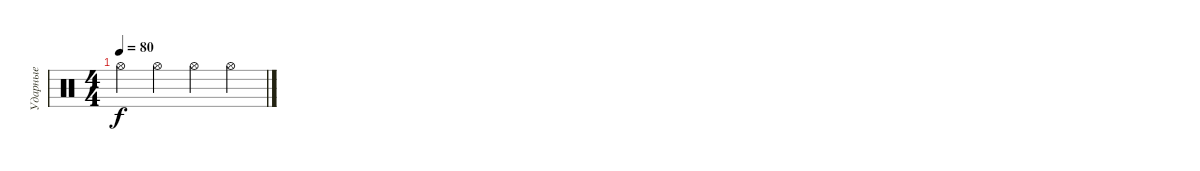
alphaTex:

\track ("Ударные" "Ударные") {instrument percussion}
\staff {score}
\articulation defaults
\ts (4 4)
\tempo 80
\clef neutral
\ks c "Hi-Hat (open)".4{dy f} "Hi-Hat (open)".4 "Hi-Hat (open)".4 "Hi-Hat (open)".4
